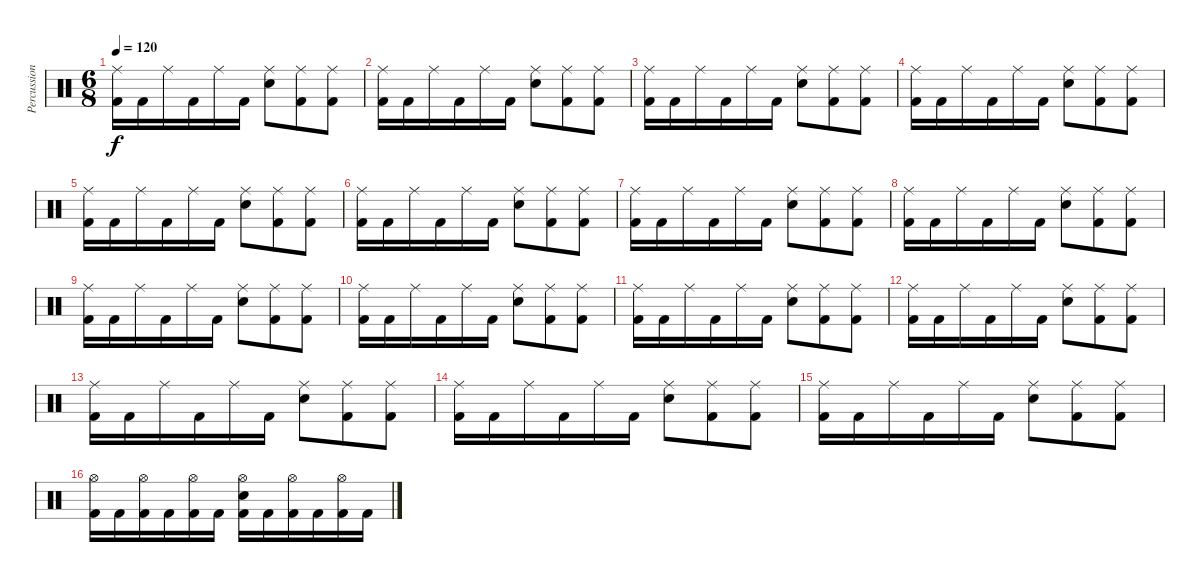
\track ("Percussion" "Percussion") {instrument percussion}
\staff {score}
\articulation defaults
\ts (6 8)
\tempo 120
\clef neutral
\ks c
("Ride (middle)" "Kick (hit) 2").16{dy f} "Kick (hit) 2".16 "Ride (middle)".16 "Kick (hit) 2".16 "Ride (middle)".16 "Kick (hit) 2".16 ("Ride (middle)" "Electric Snare (hit)").8 ("Ride (middle)" "Kick (hit) 2").8 ("Ride (middle)" "Kick (hit) 2").8 |
("Ride (middle)" "Kick (hit) 2").16 "Kick (hit) 2".16 "Ride (middle)".16 "Kick (hit) 2".16 "Ride (middle)".16 "Kick (hit) 2".16 ("Ride (middle)" "Electric Snare (hit)").8 ("Ride (middle)" "Kick (hit) 2").8 ("Ride (middle)" "Kick (hit) 2").8 |
("Ride (middle)" "Kick (hit) 2").16 "Kick (hit) 2".16 "Ride (middle)".16 "Kick (hit) 2".16 "Ride (middle)".16 "Kick (hit) 2".16 ("Ride (middle)" "Electric Snare (hit)").8 ("Ride (middle)" "Kick (hit) 2").8 ("Ride (middle)" "Kick (hit) 2").8 |
("Ride (middle)" "Kick (hit) 2").16 "Kick (hit) 2".16 "Ride (middle)".16 "Kick (hit) 2".16 "Ride (middle)".16 "Kick (hit) 2".16 ("Ride (middle)" "Electric Snare (hit)").8 ("Ride (middle)" "Kick (hit) 2").8 ("Ride (middle)" "Kick (hit) 2").8 |
("Ride (middle)" "Kick (hit) 2").16 "Kick (hit) 2".16 "Ride (middle)".16 "Kick (hit) 2".16 "Ride (middle)".16 "Kick (hit) 2".16 ("Ride (middle)" "Electric Snare (hit)").8 ("Ride (middle)" "Kick (hit) 2").8 ("Ride (middle)" "Kick (hit) 2").8 |
("Ride (middle)" "Kick (hit) 2").16 "Kick (hit) 2".16 "Ride (middle)".16 "Kick (hit) 2".16 "Ride (middle)".16 "Kick (hit) 2".16 ("Ride (middle)" "Electric Snare (hit)").8 ("Ride (middle)" "Kick (hit) 2").8 ("Ride (middle)" "Kick (hit) 2").8 |
("Ride (middle)" "Kick (hit) 2").16 "Kick (hit) 2".16 "Ride (middle)".16 "Kick (hit) 2".16 "Ride (middle)".16 "Kick (hit) 2".16 ("Ride (middle)" "Electric Snare (hit)").8 ("Ride (middle)" "Kick (hit) 2").8 ("Ride (middle)" "Kick (hit) 2").8 |
("Ride (middle)" "Kick (hit) 2").16 "Kick (hit) 2".16 "Ride (middle)".16 "Kick (hit) 2".16 "Ride (middle)".16 "Kick (hit) 2".16 ("Ride (middle)" "Electric Snare (hit)").8 ("Ride (middle)" "Kick (hit) 2").8 ("Ride (middle)" "Kick (hit) 2").8 |
("Ride (middle)" "Kick (hit) 2").16 "Kick (hit) 2".16 "Ride (middle)".16 "Kick (hit) 2".16 "Ride (middle)".16 "Kick (hit) 2".16 ("Ride (middle)" "Electric Snare (hit)").8 ("Ride (middle)" "Kick (hit) 2").8 ("Ride (middle)" "Kick (hit) 2").8 |
("Ride (middle)" "Kick (hit) 2").16 "Kick (hit) 2".16 "Ride (middle)".16 "Kick (hit) 2".16 "Ride (middle)".16 "Kick (hit) 2".16 ("Ride (middle)" "Electric Snare (hit)").8 ("Ride (middle)" "Kick (hit) 2").8 ("Ride (middle)" "Kick (hit) 2").8 |
("Ride (middle)" "Kick (hit) 2").16 "Kick (hit) 2".16 "Ride (middle)".16 "Kick (hit) 2".16 "Ride (middle)".16 "Kick (hit) 2".16 ("Ride (middle)" "Electric Snare (hit)").8 ("Ride (middle)" "Kick (hit) 2").8 ("Ride (middle)" "Kick (hit) 2").8 |
("Ride (middle)" "Kick (hit) 2").16 "Kick (hit) 2".16 "Ride (middle)".16 "Kick (hit) 2".16 "Ride (middle)".16 "Kick (hit) 2".16 ("Ride (middle)" "Electric Snare (hit)").8 ("Ride (middle)" "Kick (hit) 2").8 ("Ride (middle)" "Kick (hit) 2").8 |
("Ride (middle)" "Kick (hit) 2").16 "Kick (hit) 2".16 "Ride (middle)".16 "Kick (hit) 2".16 "Ride (middle)".16 "Kick (hit) 2".16 ("Ride (middle)" "Electric Snare (hit)").8 ("Ride (middle)" "Kick (hit) 2").8 ("Ride (middle)" "Kick (hit) 2").8 |
("Ride (middle)" "Kick (hit) 2").16 "Kick (hit) 2".16 "Ride (middle)".16 "Kick (hit) 2".16 "Ride (middle)".16 "Kick (hit) 2".16 ("Ride (middle)" "Electric Snare (hit)").8 ("Ride (middle)" "Kick (hit) 2").8 ("Ride (middle)" "Kick (hit) 2").8 |
("Ride (middle)" "Kick (hit) 2").16 "Kick (hit) 2".16 "Ride (middle)".16 "Kick (hit) 2".16 "Ride (middle)".16 "Kick (hit) 2".16 ("Ride (middle)" "Electric Snare (hit)").8 ("Ride (middle)" "Kick (hit) 2").8 ("Ride (middle)" "Kick (hit) 2").8 |
("Hi-Hat (open)" "Kick (hit) 2").16 "Kick (hit) 2".16 ("Hi-Hat (open)" "Kick (hit) 2").16 "Kick (hit) 2".16 ("Hi-Hat (open)" "Kick (hit) 2").16 "Kick (hit) 2".16 ("Hi-Hat (open)" "Electric Snare (hit)" "Kick (hit) 2").16 "Kick (hit) 2".16 ("Hi-Hat (open)" "Kick (hit) 2").16 "Kick (hit) 2".16 ("Hi-Hat (open)" "Kick (hit) 2").16 "Kick (hit) 2".16
